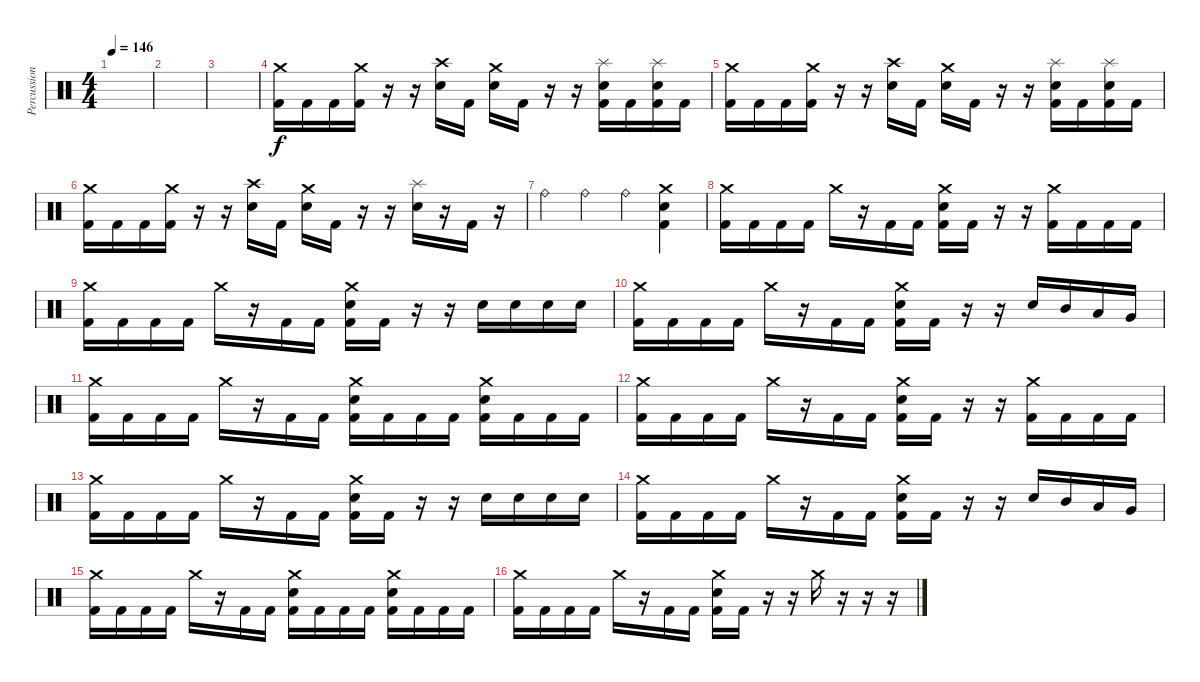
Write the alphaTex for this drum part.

\track ("Percussion" "Percussion") {instrument percussion}
\staff {score}
\articulation defaults
\ts (4 4)
\tempo 146
\clef neutral
\ks c
|
|
|
("Crash medium (hit)" "Kick (hit) 2").16{volume 16} "Kick (hit) 2".16 "Kick (hit) 2".16 ("Crash medium (hit)" "Kick (hit) 2").16 r.16 r.16 ("Crash high (hit)" "Snare (hit) 2").16 "Kick (hit) 2".16 ("Crash medium (hit)" "Snare (hit) 2").16 "Kick (hit) 2".16 r.16 r.16 ("Splash (hit)" "Snare (hit) 2" "Kick (hit) 2").16 "Kick (hit) 2".16 ("Splash (hit)" "Snare (hit) 2" "Kick (hit) 2").16 "Kick (hit) 2".16 |
("Crash medium (hit)" "Kick (hit) 2").16{volume 16} "Kick (hit) 2".16 "Kick (hit) 2".16 ("Crash medium (hit)" "Kick (hit) 2").16 r.16 r.16 ("Crash high (hit)" "Snare (hit) 2").16 "Kick (hit) 2".16 ("Crash medium (hit)" "Snare (hit) 2").16 "Kick (hit) 2".16 r.16 r.16 ("Splash (hit)" "Snare (hit) 2" "Kick (hit) 2").16 "Kick (hit) 2".16 ("Splash (hit)" "Snare (hit) 2" "Kick (hit) 2").16 "Kick (hit) 2".16 |
("Crash medium (hit)" "Kick (hit) 2").16{volume 16} "Kick (hit) 2".16 "Kick (hit) 2".16 ("Crash medium (hit)" "Kick (hit) 2").16 r.16 r.16 ("Crash high (hit)" "Snare (hit) 2").16 "Kick (hit) 2".16 ("Crash medium (hit)" "Snare (hit) 2").16 "Kick (hit) 2".16 r.16 r.16 ("Splash (hit)" "Snare (hit) 2").16 r.16 "Kick (hit) 2".16 r.16 |
"Ride (bell)".4 "Ride (bell)".4 "Ride (bell)".4 ("Crash medium (hit)" "Snare (hit) 2" "Kick (hit) 2").4 |
("Crash medium (hit)" "Kick (hit) 2").16{volume 16} "Kick (hit) 2".16 "Kick (hit) 2".16 "Kick (hit) 2".16 "Crash medium (hit)".16 r.16 "Kick (hit) 2".16 "Kick (hit) 2".16 ("Crash medium (hit)" "Snare (hit) 2" "Kick (hit) 2").16 "Kick (hit) 2".16 r.16 r.16 ("Crash medium (hit)" "Kick (hit) 2").16 "Kick (hit) 2".16 "Kick (hit) 2".16 "Kick (hit) 2".16 |
("Crash medium (hit)" "Kick (hit) 2").16{volume 16} "Kick (hit) 2".16 "Kick (hit) 2".16 "Kick (hit) 2".16 "Crash medium (hit)".16 r.16 "Kick (hit) 2".16 "Kick (hit) 2".16 ("Crash medium (hit)" "Snare (hit) 2" "Kick (hit) 2").16 "Kick (hit) 2".16 r.16 r.16 "Snare (hit) 2".16 "Snare (hit) 2".16 "Snare (hit) 2".16 "Snare (hit) 2".16 |
("Crash medium (hit)" "Kick (hit) 2").16{volume 16} "Kick (hit) 2".16 "Kick (hit) 2".16 "Kick (hit) 2".16 "Crash medium (hit)".16 r.16 "Kick (hit) 2".16 "Kick (hit) 2".16 ("Crash medium (hit)" "Snare (hit) 2" "Kick (hit) 2").16 "Kick (hit) 2".16 r.16 r.16 "Snare (hit) 2".16 "Mid Tom (hit)".16 "Low Tom (hit)".16 "Very Low Tom (hit)".16 |
("Crash medium (hit)" "Kick (hit) 2").16{volume 16} "Kick (hit) 2".16 "Kick (hit) 2".16 "Kick (hit) 2".16 "Crash medium (hit)".16 r.16 "Kick (hit) 2".16 "Kick (hit) 2".16 ("Crash medium (hit)" "Snare (hit) 2" "Kick (hit) 2").16 "Kick (hit) 2".16 "Kick (hit) 2".16 "Kick (hit) 2".16 ("Crash medium (hit)" "Snare (hit) 2" "Kick (hit) 2").16 "Kick (hit) 2".16 "Kick (hit) 2".16 "Kick (hit) 2".16 |
("Crash medium (hit)" "Kick (hit) 2").16{volume 16} "Kick (hit) 2".16 "Kick (hit) 2".16 "Kick (hit) 2".16 "Crash medium (hit)".16 r.16 "Kick (hit) 2".16 "Kick (hit) 2".16 ("Crash medium (hit)" "Snare (hit) 2" "Kick (hit) 2").16 "Kick (hit) 2".16 r.16 r.16 ("Crash medium (hit)" "Kick (hit) 2").16 "Kick (hit) 2".16 "Kick (hit) 2".16 "Kick (hit) 2".16 |
("Crash medium (hit)" "Kick (hit) 2").16{volume 16} "Kick (hit) 2".16 "Kick (hit) 2".16 "Kick (hit) 2".16 "Crash medium (hit)".16 r.16 "Kick (hit) 2".16 "Kick (hit) 2".16 ("Crash medium (hit)" "Snare (hit) 2" "Kick (hit) 2").16 "Kick (hit) 2".16 r.16 r.16 "Snare (hit) 2".16 "Snare (hit) 2".16 "Snare (hit) 2".16 "Snare (hit) 2".16 |
("Crash medium (hit)" "Kick (hit) 2").16{volume 16} "Kick (hit) 2".16 "Kick (hit) 2".16 "Kick (hit) 2".16 "Crash medium (hit)".16 r.16 "Kick (hit) 2".16 "Kick (hit) 2".16 ("Crash medium (hit)" "Snare (hit) 2" "Kick (hit) 2").16 "Kick (hit) 2".16 r.16 r.16 "Snare (hit) 2".16 "Mid Tom (hit)".16 "Low Tom (hit)".16 "Very Low Tom (hit)".16 |
("Crash medium (hit)" "Kick (hit) 2").16{volume 16} "Kick (hit) 2".16 "Kick (hit) 2".16 "Kick (hit) 2".16 "Crash medium (hit)".16 r.16 "Kick (hit) 2".16 "Kick (hit) 2".16 ("Crash medium (hit)" "Snare (hit) 2" "Kick (hit) 2").16 "Kick (hit) 2".16 "Kick (hit) 2".16 "Kick (hit) 2".16 ("Crash medium (hit)" "Snare (hit) 2" "Kick (hit) 2").16 "Kick (hit) 2".16 "Kick (hit) 2".16 "Kick (hit) 2".16 |
("Crash medium (hit)" "Kick (hit) 2").16{volume 16} "Kick (hit) 2".16 "Kick (hit) 2".16 "Kick (hit) 2".16 "Crash medium (hit)".16 r.16 "Kick (hit) 2".16 "Kick (hit) 2".16 ("Crash medium (hit)" "Snare (hit) 2" "Kick (hit) 2").16 "Kick (hit) 2".16 r.16 r.16 "Crash medium (hit)".16 r.16 r.16 r.16
